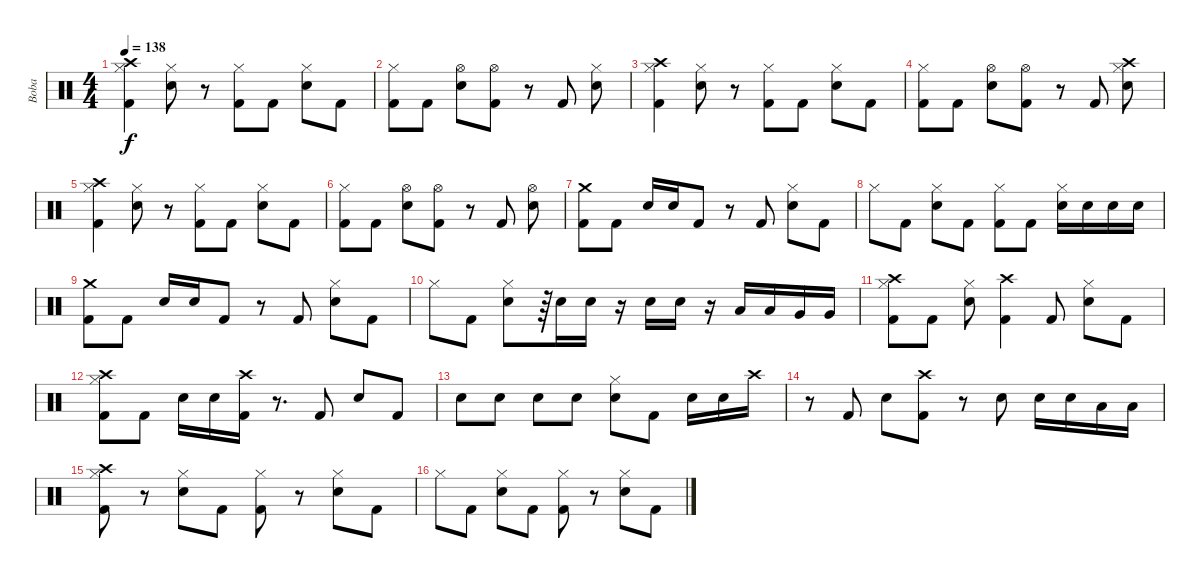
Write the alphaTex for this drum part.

\track ("Boba" "Boba") {instrument percussion}
\staff {score}
\articulation defaults
\ts (4 4)
\tempo 138
\clef neutral
\ks c
("Crash high (hit)" "Hi-Hat (closed)" "Kick (hit) 2").4{dy f} ("Hi-Hat (closed)" "Electric Snare (hit)").8 r.8 ("Hi-Hat (closed)" "Kick (hit) 2").8 "Kick (hit) 2".8 ("Hi-Hat (closed)" "Electric Snare (hit)").8 "Kick (hit) 2".8 |
("Hi-Hat (closed)" "Kick (hit) 2").8 "Kick (hit) 2".8 ("Hi-Hat (open)" "Electric Snare (hit)").8 ("Hi-Hat (open)" "Kick (hit) 2").8 r.8 "Kick (hit) 2".8 ("Hi-Hat (closed)" "Electric Snare (hit)").8 |
("Crash high (hit)" "Hi-Hat (closed)" "Kick (hit) 2").4 ("Hi-Hat (closed)" "Electric Snare (hit)").8 r.8 ("Hi-Hat (closed)" "Kick (hit) 2").8 "Kick (hit) 2".8 ("Hi-Hat (closed)" "Electric Snare (hit)").8 "Kick (hit) 2".8 |
("Hi-Hat (closed)" "Kick (hit) 2").8 "Kick (hit) 2".8 ("Hi-Hat (open)" "Electric Snare (hit)").8 ("Hi-Hat (open)" "Kick (hit) 2").8 r.8 "Kick (hit) 2".8 ("Crash high (hit)" "Hi-Hat (closed)" "Electric Snare (hit)").8 |
("Crash high (hit)" "Hi-Hat (closed)" "Kick (hit) 2").4 ("Hi-Hat (closed)" "Electric Snare (hit)").8 r.8 ("Hi-Hat (closed)" "Kick (hit) 2").8 "Kick (hit) 2".8 ("Hi-Hat (closed)" "Electric Snare (hit)").8 "Kick (hit) 2".8 |
("Hi-Hat (closed)" "Kick (hit) 2").8 "Kick (hit) 2".8 ("Hi-Hat (open)" "Electric Snare (hit)").8 ("Hi-Hat (open)" "Kick (hit) 2").8 r.8 "Kick (hit) 2".8 ("Hi-Hat (open)" "Electric Snare (hit)").8 |
("Crash medium (hit)" "Kick (hit) 2").8 "Kick (hit) 2".8 "Electric Snare (hit)".16 "Electric Snare (hit)".16 "Kick (hit) 2".8 r.8 "Kick (hit) 2".8 ("Hi-Hat (closed)" "Electric Snare (hit)").8 "Kick (hit) 2".8 |
"Hi-Hat (closed)".8 "Kick (hit) 2".8 ("Hi-Hat (closed)" "Electric Snare (hit)").8 "Kick (hit) 2".8 ("Hi-Hat (closed)" "Kick (hit) 2").8 "Kick (hit) 2".8 ("Hi-Hat (closed)" "Electric Snare (hit)").16 "Electric Snare (hit)".16 "Electric Snare (hit)".16 "Electric Snare (hit)".16 |
("Crash medium (hit)" "Kick (hit) 2").8 "Kick (hit) 2".8 "Electric Snare (hit)".16 "Electric Snare (hit)".16 "Kick (hit) 2".8 r.8 "Kick (hit) 2".8 ("Hi-Hat (closed)" "Electric Snare (hit)").8 "Kick (hit) 2".8 |
"Hi-Hat (closed)".8 "Kick (hit) 2".8 ("Hi-Hat (closed)" "Electric Snare (hit)").8 r.64 "Electric Snare (hit)".16 "Electric Snare (hit)".16 r.16 "Electric Snare (hit)".16 "Electric Snare (hit)".16 r.16 "Low Tom (hit)".16 "Low Tom (hit)".16 "Very Low Tom (hit)".16 "Very Low Tom (hit)".16 |
("Crash high (hit)" "Hi-Hat (closed)" "Kick (hit) 2").8 "Kick (hit) 2".8 ("Hi-Hat (closed)" "Electric Snare (hit)").8 ("Crash high (hit)" "Kick (hit) 2").4 "Kick (hit) 2".8 ("Hi-Hat (closed)" "Electric Snare (hit)").8 "Kick (hit) 2".8 |
("Crash high (hit)" "Hi-Hat (closed)" "Kick (hit) 2").8 "Kick (hit) 2".8 "Electric Snare (hit)".16 "Electric Snare (hit)".16 ("Crash high (hit)" "Kick (hit) 2").16 r.8{d} "Kick (hit) 2".8 "Electric Snare (hit)".8 "Kick (hit) 2".8 |
"Electric Snare (hit)".8 "Electric Snare (hit)".8 "Electric Snare (hit)".8 "Electric Snare (hit)".8 ("Hi-Hat (closed)" "Electric Snare (hit)").8 "Kick (hit) 2".8 "Electric Snare (hit)".16 "Electric Snare (hit)".16 "Crash high (hit)".16 |
r.8 "Kick (hit) 2".8 "Electric Snare (hit)".8 ("Crash high (hit)" "Kick (hit) 2").8 r.8 "Electric Snare (hit)".8 "Electric Snare (hit)".16 "Electric Snare (hit)".16 "Low Tom (hit)".16 "Low Tom (hit)".16 |
("Crash high (hit)" "Hi-Hat (closed)" "Kick (hit) 2").8 r.8 ("Hi-Hat (closed)" "Electric Snare (hit)").8 "Kick (hit) 2".8 ("Hi-Hat (closed)" "Kick (hit) 2").8 r.8 ("Hi-Hat (closed)" "Electric Snare (hit)").8 "Kick (hit) 2".8 |
"Hi-Hat (closed)".8 "Kick (hit) 2".8 ("Hi-Hat (closed)" "Electric Snare (hit)").8 "Kick (hit) 2".8 ("Hi-Hat (closed)" "Kick (hit) 2").8 r.8 ("Hi-Hat (closed)" "Electric Snare (hit)").8 "Kick (hit) 2".8
